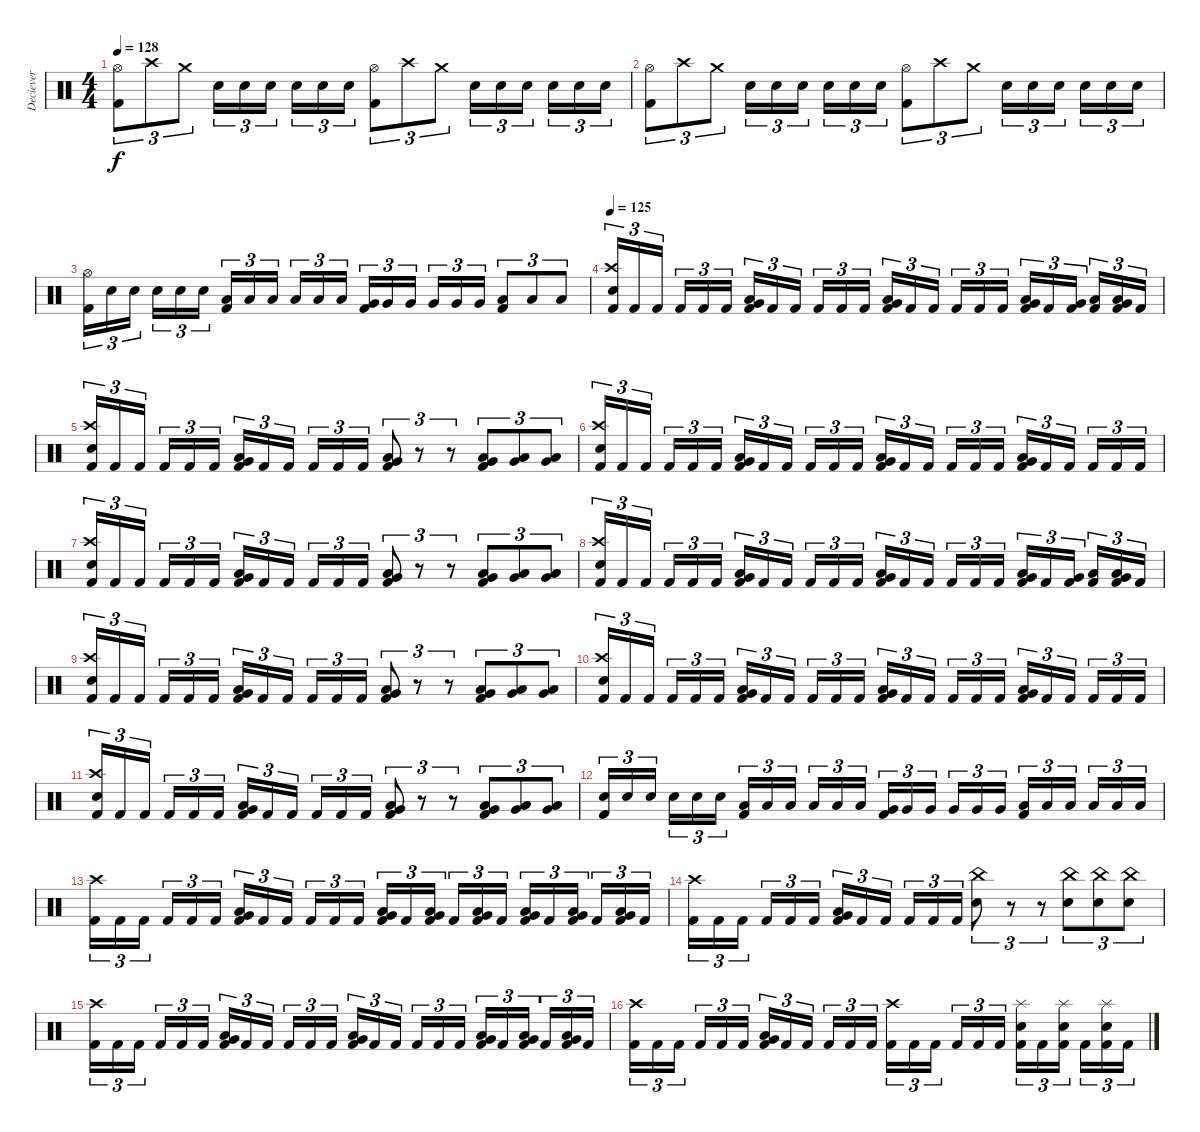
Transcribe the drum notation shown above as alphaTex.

\track ("Deciever" "Deciever") {instrument percussion}
\staff {score}
\articulation defaults
\ts (4 4)
\tempo 128
\clef neutral
\ks c
("Hi-Hat (open)" "Kick (hit) 2").8{tu (3 2) dy f} "Crash high (hit)".8{tu (3 2)} "Crash medium (hit)".8{tu (3 2)} "Electric Snare (hit)".16{tu (3 2)} "Electric Snare (hit)".16{tu (3 2)} "Electric Snare (hit)".16{tu (3 2) beam splitsecondary} "Electric Snare (hit)".16{tu (3 2)} "Electric Snare (hit)".16{tu (3 2)} "Electric Snare (hit)".16{tu (3 2)} ("Hi-Hat (open)" "Kick (hit) 2").8{tu (3 2)} "Crash high (hit)".8{tu (3 2)} "Crash medium (hit)".8{tu (3 2)} "Electric Snare (hit)".16{tu (3 2)} "Electric Snare (hit)".16{tu (3 2)} "Electric Snare (hit)".16{tu (3 2) beam splitsecondary} "Electric Snare (hit)".16{tu (3 2)} "Electric Snare (hit)".16{tu (3 2)} "Electric Snare (hit)".16{tu (3 2)} |
("Hi-Hat (open)" "Kick (hit) 2").8{tu (3 2)} "Crash high (hit)".8{tu (3 2)} "Crash medium (hit)".8{tu (3 2)} "Electric Snare (hit)".16{tu (3 2)} "Electric Snare (hit)".16{tu (3 2)} "Electric Snare (hit)".16{tu (3 2) beam splitsecondary} "Electric Snare (hit)".16{tu (3 2)} "Electric Snare (hit)".16{tu (3 2)} "Electric Snare (hit)".16{tu (3 2)} ("Hi-Hat (open)" "Kick (hit) 2").8{tu (3 2)} "Crash high (hit)".8{tu (3 2)} "Crash medium (hit)".8{tu (3 2)} "Electric Snare (hit)".16{tu (3 2)} "Electric Snare (hit)".16{tu (3 2)} "Electric Snare (hit)".16{tu (3 2) beam splitsecondary} "Electric Snare (hit)".16{tu (3 2)} "Electric Snare (hit)".16{tu (3 2)} "Electric Snare (hit)".16{tu (3 2)} |
("Hi-Hat (open)" "Kick (hit) 2").16{tu (3 2)} "Electric Snare (hit)".16{tu (3 2)} "Electric Snare (hit)".16{tu (3 2) beam splitsecondary} "Electric Snare (hit)".16{tu (3 2)} "Electric Snare (hit)".16{tu (3 2)} "Electric Snare (hit)".16{tu (3 2)} ("Low Tom (hit)" "Kick (hit) 2").16{tu (3 2)} "Low Tom (hit)".16{tu (3 2)} "Low Tom (hit)".16{tu (3 2) beam splitsecondary} "Low Tom (hit)".16{tu (3 2)} "Low Tom (hit)".16{tu (3 2)} "Low Tom (hit)".16{tu (3 2)} ("Very Low Tom (hit)" "Kick (hit) 2").16{tu (3 2)} "Very Low Tom (hit)".16{tu (3 2)} "Very Low Tom (hit)".16{tu (3 2) beam splitsecondary} "Very Low Tom (hit)".16{tu (3 2)} "Very Low Tom (hit)".16{tu (3 2)} "Very Low Tom (hit)".16{tu (3 2)} ("Low Floor Tom (hit)" "Kick (hit) 2").8{tu (3 2)} "Low Floor Tom (hit)".8{tu (3 2)} "Low Floor Tom (hit)".8{tu (3 2)} |
\tempo 125
("Crash high (hit)" "Electric Snare (hit)" "Kick (hit) 2").16{tu (3 2)} "Kick (hit) 2".16{tu (3 2)} "Kick (hit) 2".16{tu (3 2) beam splitsecondary} "Kick (hit) 2".16{tu (3 2)} "Kick (hit) 2".16{tu (3 2)} "Kick (hit) 2".16{tu (3 2)} ("Low Tom (hit)" "Very Low Tom (hit)" "Kick (hit) 2").16{tu (3 2)} "Kick (hit) 2".16{tu (3 2)} "Kick (hit) 2".16{tu (3 2) beam splitsecondary} "Kick (hit) 2".16{tu (3 2)} "Kick (hit) 2".16{tu (3 2)} "Kick (hit) 2".16{tu (3 2)} ("Low Tom (hit)" "Very Low Tom (hit)" "Kick (hit) 2").16{tu (3 2)} "Kick (hit) 2".16{tu (3 2)} "Kick (hit) 2".16{tu (3 2) beam splitsecondary} "Kick (hit) 2".16{tu (3 2)} "Kick (hit) 2".16{tu (3 2)} "Kick (hit) 2".16{tu (3 2)} ("Low Tom (hit)" "Very Low Tom (hit)" "Kick (hit) 2").16{tu (3 2)} "Kick (hit) 2".16{tu (3 2)} ("Very Low Tom (hit)" "Kick (hit) 2").16{tu (3 2) beam splitsecondary} ("Low Tom (hit)" "Kick (hit) 2").16{tu (3 2)} ("Low Tom (hit)" "Very Low Tom (hit)" "Kick (hit) 2").16{tu (3 2)} "Kick (hit) 2".16{tu (3 2)} |
("Crash high (hit)" "Electric Snare (hit)" "Kick (hit) 2").16{tu (3 2)} "Kick (hit) 2".16{tu (3 2)} "Kick (hit) 2".16{tu (3 2) beam splitsecondary} "Kick (hit) 2".16{tu (3 2)} "Kick (hit) 2".16{tu (3 2)} "Kick (hit) 2".16{tu (3 2)} ("Low Tom (hit)" "Very Low Tom (hit)" "Kick (hit) 2").16{tu (3 2)} "Kick (hit) 2".16{tu (3 2)} "Kick (hit) 2".16{tu (3 2) beam splitsecondary} "Kick (hit) 2".16{tu (3 2)} "Kick (hit) 2".16{tu (3 2)} "Kick (hit) 2".16{tu (3 2)} ("Low Tom (hit)" "Very Low Tom (hit)" "Kick (hit) 2").8{tu (3 2)} r.8{tu (3 2)} r.8{tu (3 2)} ("Low Tom (hit)" "Very Low Tom (hit)" "Kick (hit) 2").8{tu (3 2)} ("Low Tom (hit)" "Very Low Tom (hit)").8{tu (3 2)} ("Low Tom (hit)" "Very Low Tom (hit)").8{tu (3 2)} |
("Crash high (hit)" "Electric Snare (hit)" "Kick (hit) 2").16{tu (3 2)} "Kick (hit) 2".16{tu (3 2)} "Kick (hit) 2".16{tu (3 2) beam splitsecondary} "Kick (hit) 2".16{tu (3 2)} "Kick (hit) 2".16{tu (3 2)} "Kick (hit) 2".16{tu (3 2)} ("Low Tom (hit)" "Very Low Tom (hit)" "Kick (hit) 2").16{tu (3 2)} "Kick (hit) 2".16{tu (3 2)} "Kick (hit) 2".16{tu (3 2) beam splitsecondary} "Kick (hit) 2".16{tu (3 2)} "Kick (hit) 2".16{tu (3 2)} "Kick (hit) 2".16{tu (3 2)} ("Low Tom (hit)" "Very Low Tom (hit)" "Kick (hit) 2").16{tu (3 2)} "Kick (hit) 2".16{tu (3 2)} "Kick (hit) 2".16{tu (3 2) beam splitsecondary} "Kick (hit) 2".16{tu (3 2)} "Kick (hit) 2".16{tu (3 2)} "Kick (hit) 2".16{tu (3 2)} ("Low Tom (hit)" "Very Low Tom (hit)" "Kick (hit) 2").16{tu (3 2)} "Kick (hit) 2".16{tu (3 2)} "Kick (hit) 2".16{tu (3 2) beam splitsecondary} "Kick (hit) 2".16{tu (3 2)} "Kick (hit) 2".16{tu (3 2)} "Kick (hit) 2".16{tu (3 2)} |
("Crash high (hit)" "Electric Snare (hit)" "Kick (hit) 2").16{tu (3 2)} "Kick (hit) 2".16{tu (3 2)} "Kick (hit) 2".16{tu (3 2) beam splitsecondary} "Kick (hit) 2".16{tu (3 2)} "Kick (hit) 2".16{tu (3 2)} "Kick (hit) 2".16{tu (3 2)} ("Low Tom (hit)" "Very Low Tom (hit)" "Kick (hit) 2").16{tu (3 2)} "Kick (hit) 2".16{tu (3 2)} "Kick (hit) 2".16{tu (3 2) beam splitsecondary} "Kick (hit) 2".16{tu (3 2)} "Kick (hit) 2".16{tu (3 2)} "Kick (hit) 2".16{tu (3 2)} ("Low Tom (hit)" "Very Low Tom (hit)" "Kick (hit) 2").8{tu (3 2)} r.8{tu (3 2)} r.8{tu (3 2)} ("Low Tom (hit)" "Very Low Tom (hit)" "Kick (hit) 2").8{tu (3 2)} ("Low Tom (hit)" "Very Low Tom (hit)").8{tu (3 2)} ("Low Tom (hit)" "Very Low Tom (hit)").8{tu (3 2)} |
("Crash high (hit)" "Electric Snare (hit)" "Kick (hit) 2").16{tu (3 2)} "Kick (hit) 2".16{tu (3 2)} "Kick (hit) 2".16{tu (3 2) beam splitsecondary} "Kick (hit) 2".16{tu (3 2)} "Kick (hit) 2".16{tu (3 2)} "Kick (hit) 2".16{tu (3 2)} ("Low Tom (hit)" "Very Low Tom (hit)" "Kick (hit) 2").16{tu (3 2)} "Kick (hit) 2".16{tu (3 2)} "Kick (hit) 2".16{tu (3 2) beam splitsecondary} "Kick (hit) 2".16{tu (3 2)} "Kick (hit) 2".16{tu (3 2)} "Kick (hit) 2".16{tu (3 2)} ("Low Tom (hit)" "Very Low Tom (hit)" "Kick (hit) 2").16{tu (3 2)} "Kick (hit) 2".16{tu (3 2)} "Kick (hit) 2".16{tu (3 2) beam splitsecondary} "Kick (hit) 2".16{tu (3 2)} "Kick (hit) 2".16{tu (3 2)} "Kick (hit) 2".16{tu (3 2)} ("Low Tom (hit)" "Very Low Tom (hit)" "Kick (hit) 2").16{tu (3 2)} "Kick (hit) 2".16{tu (3 2)} ("Very Low Tom (hit)" "Kick (hit) 2").16{tu (3 2) beam splitsecondary} ("Low Tom (hit)" "Kick (hit) 2").16{tu (3 2)} ("Low Tom (hit)" "Very Low Tom (hit)" "Kick (hit) 2").16{tu (3 2)} "Kick (hit) 2".16{tu (3 2)} |
("Crash high (hit)" "Electric Snare (hit)" "Kick (hit) 2").16{tu (3 2)} "Kick (hit) 2".16{tu (3 2)} "Kick (hit) 2".16{tu (3 2) beam splitsecondary} "Kick (hit) 2".16{tu (3 2)} "Kick (hit) 2".16{tu (3 2)} "Kick (hit) 2".16{tu (3 2)} ("Low Tom (hit)" "Very Low Tom (hit)" "Kick (hit) 2").16{tu (3 2)} "Kick (hit) 2".16{tu (3 2)} "Kick (hit) 2".16{tu (3 2) beam splitsecondary} "Kick (hit) 2".16{tu (3 2)} "Kick (hit) 2".16{tu (3 2)} "Kick (hit) 2".16{tu (3 2)} ("Low Tom (hit)" "Very Low Tom (hit)" "Kick (hit) 2").8{tu (3 2)} r.8{tu (3 2)} r.8{tu (3 2)} ("Low Tom (hit)" "Very Low Tom (hit)" "Kick (hit) 2").8{tu (3 2)} ("Low Tom (hit)" "Very Low Tom (hit)").8{tu (3 2)} ("Low Tom (hit)" "Very Low Tom (hit)").8{tu (3 2)} |
("Crash high (hit)" "Electric Snare (hit)" "Kick (hit) 2").16{tu (3 2)} "Kick (hit) 2".16{tu (3 2)} "Kick (hit) 2".16{tu (3 2) beam splitsecondary} "Kick (hit) 2".16{tu (3 2)} "Kick (hit) 2".16{tu (3 2)} "Kick (hit) 2".16{tu (3 2)} ("Low Tom (hit)" "Very Low Tom (hit)" "Kick (hit) 2").16{tu (3 2)} "Kick (hit) 2".16{tu (3 2)} "Kick (hit) 2".16{tu (3 2) beam splitsecondary} "Kick (hit) 2".16{tu (3 2)} "Kick (hit) 2".16{tu (3 2)} "Kick (hit) 2".16{tu (3 2)} ("Low Tom (hit)" "Very Low Tom (hit)" "Kick (hit) 2").16{tu (3 2)} "Kick (hit) 2".16{tu (3 2)} "Kick (hit) 2".16{tu (3 2) beam splitsecondary} "Kick (hit) 2".16{tu (3 2)} "Kick (hit) 2".16{tu (3 2)} "Kick (hit) 2".16{tu (3 2)} ("Low Tom (hit)" "Very Low Tom (hit)" "Kick (hit) 2").16{tu (3 2)} "Kick (hit) 2".16{tu (3 2)} "Kick (hit) 2".16{tu (3 2) beam splitsecondary} "Kick (hit) 2".16{tu (3 2)} "Kick (hit) 2".16{tu (3 2)} "Kick (hit) 2".16{tu (3 2)} |
("Crash high (hit)" "Electric Snare (hit)" "Kick (hit) 2").16{tu (3 2)} "Kick (hit) 2".16{tu (3 2)} "Kick (hit) 2".16{tu (3 2) beam splitsecondary} "Kick (hit) 2".16{tu (3 2)} "Kick (hit) 2".16{tu (3 2)} "Kick (hit) 2".16{tu (3 2)} ("Low Tom (hit)" "Very Low Tom (hit)" "Kick (hit) 2").16{tu (3 2)} "Kick (hit) 2".16{tu (3 2)} "Kick (hit) 2".16{tu (3 2) beam splitsecondary} "Kick (hit) 2".16{tu (3 2)} "Kick (hit) 2".16{tu (3 2)} "Kick (hit) 2".16{tu (3 2)} ("Low Tom (hit)" "Very Low Tom (hit)" "Kick (hit) 2").8{tu (3 2)} r.8{tu (3 2)} r.8{tu (3 2)} ("Low Tom (hit)" "Very Low Tom (hit)" "Kick (hit) 2").8{tu (3 2)} ("Low Tom (hit)" "Very Low Tom (hit)").8{tu (3 2)} ("Low Tom (hit)" "Very Low Tom (hit)").8{tu (3 2)} |
("Electric Snare (hit)" "Kick (hit) 2").16{tu (3 2)} "Electric Snare (hit)".16{tu (3 2)} "Electric Snare (hit)".16{tu (3 2) beam splitsecondary} "Electric Snare (hit)".16{tu (3 2)} "Electric Snare (hit)".16{tu (3 2)} "Electric Snare (hit)".16{tu (3 2)} ("Low Tom (hit)" "Kick (hit) 2").16{tu (3 2)} "Low Tom (hit)".16{tu (3 2)} "Low Tom (hit)".16{tu (3 2) beam splitsecondary} "Low Tom (hit)".16{tu (3 2)} "Low Tom (hit)".16{tu (3 2)} "Low Tom (hit)".16{tu (3 2)} ("Very Low Tom (hit)" "Kick (hit) 2").16{tu (3 2)} "Very Low Tom (hit)".16{tu (3 2)} "Very Low Tom (hit)".16{tu (3 2) beam splitsecondary} "Very Low Tom (hit)".16{tu (3 2)} "Very Low Tom (hit)".16{tu (3 2)} "Very Low Tom (hit)".16{tu (3 2)} ("Low Floor Tom (hit)" "Kick (hit) 2").16{tu (3 2)} "Low Floor Tom (hit)".16{tu (3 2)} "Low Floor Tom (hit)".16{tu (3 2) beam splitsecondary} "Low Floor Tom (hit)".16{tu (3 2)} "Low Floor Tom (hit)".16{tu (3 2)} "Low Floor Tom (hit)".16{tu (3 2)} |
("Crash high (hit)" "Kick (hit) 2").16{tu (3 2)} "Kick (hit) 2".16{tu (3 2)} "Kick (hit) 2".16{tu (3 2) beam splitsecondary} "Kick (hit) 2".16{tu (3 2)} "Kick (hit) 2".16{tu (3 2)} "Kick (hit) 2".16{tu (3 2)} ("Low Tom (hit)" "Very Low Tom (hit)" "Kick (hit) 2").16{tu (3 2)} "Kick (hit) 2".16{tu (3 2)} "Kick (hit) 2".16{tu (3 2) beam splitsecondary} "Kick (hit) 2".16{tu (3 2)} "Kick (hit) 2".16{tu (3 2)} "Kick (hit) 2".16{tu (3 2)} ("Low Tom (hit)" "Very Low Tom (hit)" "Kick (hit) 2").16{tu (3 2)} "Kick (hit) 2".16{tu (3 2)} ("Low Tom (hit)" "Very Low Tom (hit)" "Kick (hit) 2").16{tu (3 2) beam splitsecondary} "Kick (hit) 2".16{tu (3 2)} ("Low Tom (hit)" "Very Low Tom (hit)" "Kick (hit) 2").16{tu (3 2)} "Kick (hit) 2".16{tu (3 2)} ("Low Tom (hit)" "Very Low Tom (hit)" "Kick (hit) 2").16{tu (3 2)} "Kick (hit) 2".16{tu (3 2)} ("Low Tom (hit)" "Very Low Tom (hit)" "Kick (hit) 2").16{tu (3 2) beam splitsecondary} "Kick (hit) 2".16{tu (3 2)} ("Low Tom (hit)" "Very Low Tom (hit)" "Kick (hit) 2").16{tu (3 2)} "Kick (hit) 2".16{tu (3 2)} |
("Crash high (hit)" "Kick (hit) 2").16{tu (3 2)} "Kick (hit) 2".16{tu (3 2)} "Kick (hit) 2".16{tu (3 2) beam splitsecondary} "Kick (hit) 2".16{tu (3 2)} "Kick (hit) 2".16{tu (3 2)} "Kick (hit) 2".16{tu (3 2)} ("Low Tom (hit)" "Very Low Tom (hit)" "Kick (hit) 2").16{tu (3 2)} "Kick (hit) 2".16{tu (3 2)} "Kick (hit) 2".16{tu (3 2) beam splitsecondary} "Kick (hit) 2".16{tu (3 2)} "Kick (hit) 2".16{tu (3 2)} "Kick (hit) 2".16{tu (3 2)} ("China (hit)" "Electric Snare (hit)").8{tu (3 2)} r.8{tu (3 2)} r.8{tu (3 2)} ("China (hit)" "Electric Snare (hit)").8{tu (3 2)} ("China (hit)" "Electric Snare (hit)").8{tu (3 2)} ("China (hit)" "Electric Snare (hit)").8{tu (3 2)} |
("Crash high (hit)" "Kick (hit) 2").16{tu (3 2)} "Kick (hit) 2".16{tu (3 2)} "Kick (hit) 2".16{tu (3 2) beam splitsecondary} "Kick (hit) 2".16{tu (3 2)} "Kick (hit) 2".16{tu (3 2)} "Kick (hit) 2".16{tu (3 2)} ("Low Tom (hit)" "Very Low Tom (hit)" "Kick (hit) 2").16{tu (3 2)} "Kick (hit) 2".16{tu (3 2)} "Kick (hit) 2".16{tu (3 2) beam splitsecondary} "Kick (hit) 2".16{tu (3 2)} "Kick (hit) 2".16{tu (3 2)} "Kick (hit) 2".16{tu (3 2)} ("Low Tom (hit)" "Very Low Tom (hit)" "Kick (hit) 2").16{tu (3 2)} "Kick (hit) 2".16{tu (3 2)} "Kick (hit) 2".16{tu (3 2) beam splitsecondary} "Kick (hit) 2".16{tu (3 2)} "Kick (hit) 2".16{tu (3 2)} "Kick (hit) 2".16{tu (3 2)} ("Low Tom (hit)" "Very Low Tom (hit)" "Kick (hit) 2").16{tu (3 2)} "Kick (hit) 2".16{tu (3 2)} ("Low Tom (hit)" "Very Low Tom (hit)" "Kick (hit) 2").16{tu (3 2) beam splitsecondary} "Kick (hit) 2".16{tu (3 2)} ("Low Tom (hit)" "Very Low Tom (hit)" "Kick (hit) 2").16{tu (3 2)} "Kick (hit) 2".16{tu (3 2)} |
("Crash high (hit)" "Kick (hit) 2").16{tu (3 2)} "Kick (hit) 2".16{tu (3 2)} "Kick (hit) 2".16{tu (3 2) beam splitsecondary} "Kick (hit) 2".16{tu (3 2)} "Kick (hit) 2".16{tu (3 2)} "Kick (hit) 2".16{tu (3 2)} ("Low Tom (hit)" "Very Low Tom (hit)" "Kick (hit) 2").16{tu (3 2)} "Kick (hit) 2".16{tu (3 2)} "Kick (hit) 2".16{tu (3 2) beam splitsecondary} "Kick (hit) 2".16{tu (3 2)} "Kick (hit) 2".16{tu (3 2)} "Kick (hit) 2".16{tu (3 2)} ("Crash high (hit)" "Kick (hit) 2").16{tu (3 2)} "Kick (hit) 2".16{tu (3 2)} "Kick (hit) 2".16{tu (3 2) beam splitsecondary} "Kick (hit) 2".16{tu (3 2)} "Kick (hit) 2".16{tu (3 2)} "Kick (hit) 2".16{tu (3 2)} ("Splash (hit)" "Electric Snare (hit)" "Kick (hit) 2").16{tu (3 2)} "Kick (hit) 2".16{tu (3 2)} ("Splash (hit)" "Electric Snare (hit)" "Kick (hit) 2").16{tu (3 2) beam splitsecondary} "Kick (hit) 2".16{tu (3 2)} ("Splash (hit)" "Electric Snare (hit)" "Kick (hit) 2").16{tu (3 2)} "Kick (hit) 2".16{tu (3 2)}
